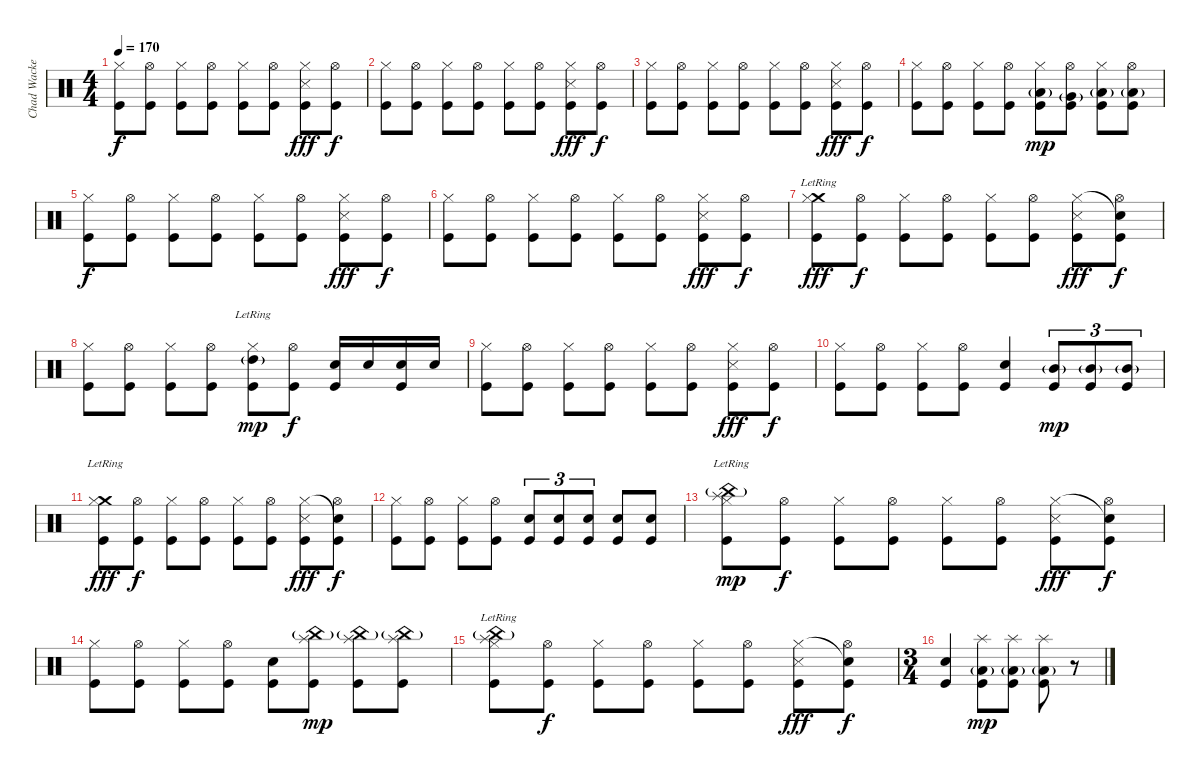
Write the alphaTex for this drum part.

\track ("Chad Wackerman - Drum's" "Chad Wacke") {instrument percussion}
\staff {score}
\articulation defaults
\ts (4 4)
\tempo 170
\clef neutral
\ks c
("Hi-Hat (closed)" "Kick (hit)").8{dy f} ("Hi-Hat (open)" "Kick (hit)").8 ("Hi-Hat (closed)" "Kick (hit)").8 ("Hi-Hat (open)" "Kick (hit)").8 ("Hi-Hat (closed)" "Kick (hit)").8 ("Hi-Hat (open)" "Kick (hit)").8 ("Hi-Hat (closed)" "Metronome (hit)" "Kick (hit)").8{dy fff} ("Hi-Hat (open)" "Kick (hit)").8{dy f} |
("Hi-Hat (closed)" "Kick (hit)").8 ("Hi-Hat (open)" "Kick (hit)").8 ("Hi-Hat (closed)" "Kick (hit)").8 ("Hi-Hat (open)" "Kick (hit)").8 ("Hi-Hat (closed)" "Kick (hit)").8 ("Hi-Hat (open)" "Kick (hit)").8 ("Hi-Hat (closed)" "Metronome (hit)" "Kick (hit)").8{dy fff} ("Hi-Hat (open)" "Kick (hit)").8{dy f} |
("Hi-Hat (closed)" "Kick (hit)").8 ("Hi-Hat (open)" "Kick (hit)").8 ("Hi-Hat (closed)" "Kick (hit)").8 ("Hi-Hat (open)" "Kick (hit)").8 ("Hi-Hat (closed)" "Kick (hit)").8 ("Hi-Hat (open)" "Kick (hit)").8 ("Hi-Hat (closed)" "Metronome (hit)" "Kick (hit)").8{dy fff} ("Hi-Hat (open)" "Kick (hit)").8{dy f} |
("Hi-Hat (closed)" "Kick (hit)").8 ("Hi-Hat (open)" "Kick (hit)").8 ("Hi-Hat (closed)" "Kick (hit)").8 ("Hi-Hat (open)" "Kick (hit)").8 ("Low Tom (hit)"{g} "Hi-Hat (closed)" "Kick (hit)").8{dy mp} ("Very Low Tom (hit)"{g} "Hi-Hat (open)" "Kick (hit)").8 ("Low Floor Tom (hit)"{g} "Hi-Hat (closed)" "Kick (hit)").8 ("Low Floor Tom (hit)"{g} "Hi-Hat (open)" "Kick (hit)").8 |
("Hi-Hat (closed)" "Kick (hit)").8{dy f} ("Hi-Hat (open)" "Kick (hit)").8 ("Hi-Hat (closed)" "Kick (hit)").8 ("Hi-Hat (open)" "Kick (hit)").8 ("Hi-Hat (closed)" "Kick (hit)").8 ("Hi-Hat (open)" "Kick (hit)").8 ("Hi-Hat (closed)" "Metronome (hit)" "Kick (hit)").8{dy fff} ("Hi-Hat (open)" "Kick (hit)").8{dy f} |
("Hi-Hat (closed)" "Kick (hit)").8 ("Hi-Hat (open)" "Kick (hit)").8 ("Hi-Hat (closed)" "Kick (hit)").8 ("Hi-Hat (open)" "Kick (hit)").8 ("Hi-Hat (closed)" "Kick (hit)").8 ("Hi-Hat (open)" "Kick (hit)").8 ("Hi-Hat (closed)" "Metronome (hit)" "Kick (hit)").8{dy fff} ("Hi-Hat (open)" "Kick (hit)").8{dy f} |
("Crash medium (hit)"{lr} "Hi-Hat (closed)" "Kick (hit)").8{dy fff} ("Hi-Hat (open)" "Kick (hit)").8{dy f} ("Hi-Hat (closed)" "Kick (hit)").8 ("Hi-Hat (open)" "Kick (hit)").8 ("Hi-Hat (closed)" "Kick (hit)").8 ("Hi-Hat (open)" "Kick (hit)").8 ("Hi-Hat (closed)" "Metronome (hit)" "Kick (hit)").8{dy fff} ("Snare (hit)"{t} "Hi-Hat (open)" "Kick (hit)").8{dy f} |
("Hi-Hat (closed)" "Kick (hit)").8 ("Hi-Hat (open)" "Kick (hit)").8 ("Hi-Hat (closed)" "Kick (hit)").8 ("Hi-Hat (open)" "Kick (hit)").8 ("High Tom (hit)"{g lr} "Hi-Hat (closed)" "Kick (hit)").8{dy mp} ("Hi-Hat (open)" "Kick (hit)").8{dy f} ("Snare (hit) 2" "Kick (hit)").16 "Snare (hit) 2".16 ("Snare (hit) 2" "Kick (hit)").16 "Snare (hit) 2".16 |
("Hi-Hat (closed)" "Kick (hit)").8 ("Hi-Hat (open)" "Kick (hit)").8 ("Hi-Hat (closed)" "Kick (hit)").8 ("Hi-Hat (open)" "Kick (hit)").8 ("Hi-Hat (closed)" "Kick (hit)").8 ("Hi-Hat (open)" "Kick (hit)").8 ("Hi-Hat (closed)" "Metronome (hit)" "Kick (hit)").8{dy fff} ("Hi-Hat (open)" "Kick (hit)").8{dy f} |
("Hi-Hat (closed)" "Kick (hit)").8 ("Hi-Hat (open)" "Kick (hit)").8 ("Hi-Hat (closed)" "Kick (hit)").8 ("Hi-Hat (open)" "Kick (hit)").8 ("Snare (hit) 2" "Kick (hit)").4 ("Mid Tom (hit)"{g} "Kick (hit)").8{tu (3 2) dy mp} ("Mid Tom (hit)"{g} "Kick (hit)").8{tu (3 2)} ("Mid Tom (hit)"{g} "Kick (hit)").8{tu (3 2)} |
("Crash medium (hit)"{lr} "Hi-Hat (closed)" "Kick (hit)").8{dy fff} ("Hi-Hat (open)" "Kick (hit)").8{dy f} ("Hi-Hat (closed)" "Kick (hit)").8 ("Hi-Hat (open)" "Kick (hit)").8 ("Hi-Hat (closed)" "Kick (hit)").8 ("Hi-Hat (open)" "Kick (hit)").8 ("Hi-Hat (closed)" "Metronome (hit)" "Kick (hit)").8{dy fff} ("Snare (hit)"{t} "Hi-Hat (open)" "Kick (hit)").8{dy f} |
("Hi-Hat (closed)" "Kick (hit)").8 ("Hi-Hat (open)" "Kick (hit)").8 ("Hi-Hat (closed)" "Kick (hit)").8 ("Hi-Hat (open)" "Kick (hit)").8 ("Snare (hit) 2" "Kick (hit)").8{tu (3 2)} ("Snare (hit) 2" "Kick (hit)").8{tu (3 2)} ("Snare (hit) 2" "Kick (hit)").8{tu (3 2)} ("Snare (hit) 2" "Kick (hit)").8 ("Snare (hit) 2" "Kick (hit)").8 |
("Splash (hit)"{lr} "China (hit)"{g} "Hi-Hat (closed)" "Kick (hit)").8{dy mp} ("Hi-Hat (open)" "Kick (hit)").8{dy f} ("Hi-Hat (closed)" "Kick (hit)").8 ("Hi-Hat (open)" "Kick (hit)").8 ("Hi-Hat (closed)" "Kick (hit)").8 ("Hi-Hat (open)" "Kick (hit)").8 ("Hi-Hat (closed)" "Metronome (hit)" "Kick (hit)").8{dy fff} ("Snare (hit)"{t} "Hi-Hat (open)" "Kick (hit)").8{dy f} |
("Hi-Hat (closed)" "Kick (hit)").8 ("Hi-Hat (open)" "Kick (hit)").8 ("Hi-Hat (closed)" "Kick (hit)").8 ("Hi-Hat (open)" "Kick (hit)").8 ("Snare (hit) 2" "Kick (hit)").8 ("Splash (hit)" "China (hit)"{g} "Kick (hit)").8{dy mp} ("Splash (hit)" "China (hit)"{g} "Kick (hit)").8 ("Splash (hit)" "China (hit)"{g} "Kick (hit)").8 |
("Splash (hit)"{lr} "China (hit)"{g} "Hi-Hat (closed)" "Kick (hit)").8 ("Hi-Hat (open)" "Kick (hit)").8{dy f} ("Hi-Hat (closed)" "Kick (hit)").8 ("Hi-Hat (open)" "Kick (hit)").8 ("Hi-Hat (closed)" "Kick (hit)").8 ("Hi-Hat (open)" "Kick (hit)").8 ("Hi-Hat (closed)" "Metronome (hit)" "Kick (hit)").8{dy fff} ("Snare (hit)"{t} "Hi-Hat (open)" "Kick (hit)").8{dy f} |
\ts (3 4)
("Snare (hit) 2" "Kick (hit)").4 ("Splash (hit)" "Low Floor Tom (hit)"{g} "Kick (hit)").8{dy mp} ("Splash (hit)" "Low Floor Tom (hit)"{g} "Kick (hit)").8 ("Splash (hit)" "Low Floor Tom (hit)"{g} "Kick (hit)").8 r.8
